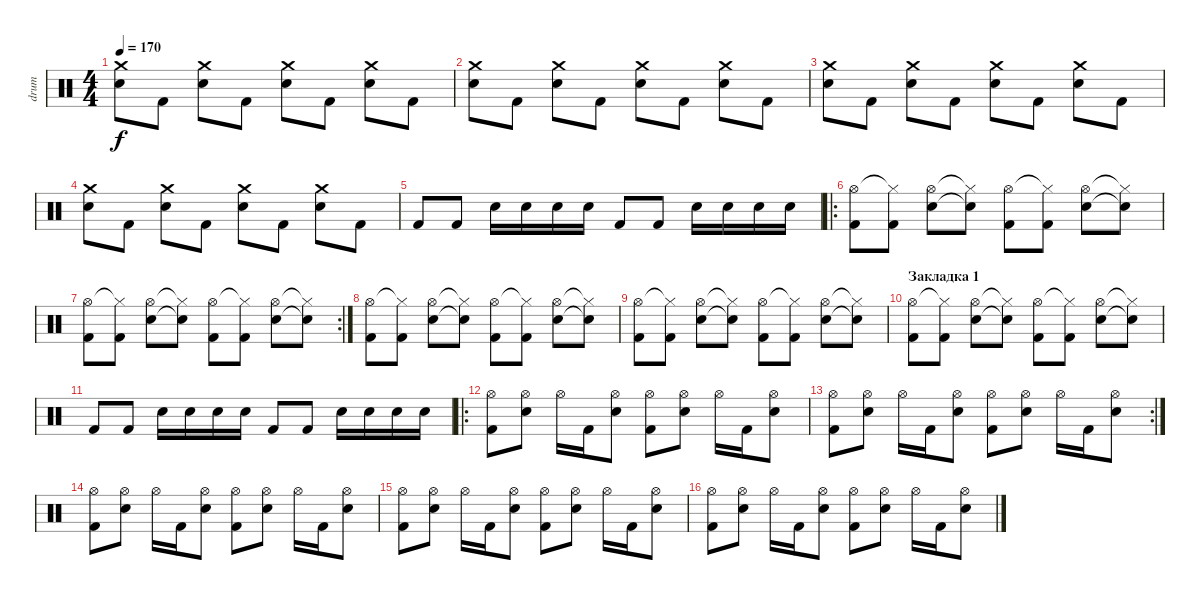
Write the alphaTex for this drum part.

\track ("drum" "drum") {instrument percussion}
\staff {score}
\articulation defaults
\ts (4 4)
\tempo 170
\clef neutral
\ks c
("Crash medium (hit)" "Snare (hit) 2").8{dy f} "Kick (hit) 2".8 ("Crash medium (hit)" "Snare (hit) 2").8 "Kick (hit) 2".8 ("Crash medium (hit)" "Snare (hit) 2").8 "Kick (hit) 2".8 ("Crash medium (hit)" "Snare (hit) 2").8 "Kick (hit) 2".8 |
("Crash medium (hit)" "Snare (hit) 2").8 "Kick (hit) 2".8 ("Crash medium (hit)" "Snare (hit) 2").8 "Kick (hit) 2".8 ("Crash medium (hit)" "Snare (hit) 2").8 "Kick (hit) 2".8 ("Crash medium (hit)" "Snare (hit) 2").8 "Kick (hit) 2".8 |
("Crash medium (hit)" "Snare (hit) 2").8 "Kick (hit) 2".8 ("Crash medium (hit)" "Snare (hit) 2").8 "Kick (hit) 2".8 ("Crash medium (hit)" "Snare (hit) 2").8 "Kick (hit) 2".8 ("Crash medium (hit)" "Snare (hit) 2").8 "Kick (hit) 2".8 |
("Crash medium (hit)" "Snare (hit) 2").8 "Kick (hit) 2".8 ("Crash medium (hit)" "Snare (hit) 2").8 "Kick (hit) 2".8 ("Crash medium (hit)" "Snare (hit) 2").8 "Kick (hit) 2".8 ("Crash medium (hit)" "Snare (hit) 2").8 "Kick (hit) 2".8 |
"Kick (hit) 2".8 "Kick (hit) 2".8 "Snare (hit) 2".16 "Snare (hit) 2".16 "Snare (hit) 2".16 "Snare (hit) 2".16 "Kick (hit) 2".8 "Kick (hit) 2".8 "Snare (hit) 2".16 "Snare (hit) 2".16 "Snare (hit) 2".16 "Snare (hit) 2".16 |
\ro
("Hi-Hat (open)" "Kick (hit) 2").8 ("Hi-Hat (closed)"{t} "Kick (hit) 2").8 ("Hi-Hat (open)" "Snare (hit) 2").8 ("Hi-Hat (closed)"{t} "Snare (hit)"{t}).8 ("Hi-Hat (open)" "Kick (hit) 2").8 ("Hi-Hat (closed)"{t} "Kick (hit) 2").8 ("Hi-Hat (open)" "Snare (hit) 2").8 ("Hi-Hat (closed)"{t} "Snare (hit) 2"{t}).8 |
\rc 2
("Hi-Hat (open)" "Kick (hit) 2").8 ("Hi-Hat (closed)"{t} "Kick (hit) 2").8 ("Hi-Hat (open)" "Snare (hit) 2").8 ("Hi-Hat (closed)"{t} "Snare (hit)"{t}).8 ("Hi-Hat (open)" "Kick (hit) 2").8 ("Hi-Hat (closed)"{t} "Kick (hit) 2").8 ("Hi-Hat (open)" "Snare (hit) 2").8 ("Hi-Hat (closed)"{t} "Snare (hit) 2"{t}).8 |
("Hi-Hat (open)" "Kick (hit) 2").8 ("Hi-Hat (closed)"{t} "Kick (hit) 2").8 ("Hi-Hat (open)" "Snare (hit) 2").8 ("Hi-Hat (closed)"{t} "Snare (hit)"{t}).8 ("Hi-Hat (open)" "Kick (hit) 2").8 ("Hi-Hat (closed)"{t} "Kick (hit) 2").8 ("Hi-Hat (open)" "Snare (hit) 2").8 ("Hi-Hat (closed)"{t} "Snare (hit) 2"{t}).8 |
("Hi-Hat (open)" "Kick (hit) 2").8 ("Hi-Hat (closed)"{t} "Kick (hit) 2").8 ("Hi-Hat (open)" "Snare (hit) 2").8 ("Hi-Hat (closed)"{t} "Snare (hit)"{t}).8 ("Hi-Hat (open)" "Kick (hit) 2").8 ("Hi-Hat (closed)"{t} "Kick (hit) 2").8 ("Hi-Hat (open)" "Snare (hit) 2").8 ("Hi-Hat (closed)"{t} "Snare (hit) 2"{t}).8 |
\section ("" "Закладка 1")
("Hi-Hat (open)" "Kick (hit) 2").8 ("Hi-Hat (closed)"{t} "Kick (hit) 2").8 ("Hi-Hat (open)" "Snare (hit) 2").8 ("Hi-Hat (closed)"{t} "Snare (hit)"{t}).8 ("Hi-Hat (open)" "Kick (hit) 2").8 ("Hi-Hat (closed)"{t} "Kick (hit) 2").8 ("Hi-Hat (open)" "Snare (hit) 2").8 ("Hi-Hat (closed)"{t} "Snare (hit) 2"{t}).8 |
"Kick (hit) 2".8 "Kick (hit) 2".8 "Snare (hit) 2".16 "Snare (hit) 2".16 "Snare (hit) 2".16 "Snare (hit) 2".16 "Kick (hit) 2".8 "Kick (hit) 2".8 "Snare (hit) 2".16 "Snare (hit) 2".16 "Snare (hit) 2".16 "Snare (hit) 2".16 |
\ro
("Hi-Hat (open)" "Kick (hit) 2").8 ("Hi-Hat (open)" "Snare (hit) 2").8 "Hi-Hat (open)".16 "Kick (hit) 2".16 ("Hi-Hat (open)" "Snare (hit) 2").8 ("Hi-Hat (open)" "Kick (hit) 2").8 ("Hi-Hat (open)" "Snare (hit) 2").8 "Hi-Hat (open)".16 "Kick (hit) 2".16 ("Hi-Hat (open)" "Snare (hit) 2").8 |
\rc 2
("Hi-Hat (open)" "Kick (hit) 2").8 ("Hi-Hat (open)" "Snare (hit) 2").8 "Hi-Hat (open)".16 "Kick (hit) 2".16 ("Hi-Hat (open)" "Snare (hit) 2").8 ("Hi-Hat (open)" "Kick (hit) 2").8 ("Hi-Hat (open)" "Snare (hit) 2").8 "Hi-Hat (open)".16 "Kick (hit) 2".16 ("Hi-Hat (open)" "Snare (hit) 2").8 |
("Hi-Hat (open)" "Kick (hit) 2").8 ("Hi-Hat (open)" "Snare (hit) 2").8 "Hi-Hat (open)".16 "Kick (hit) 2".16 ("Hi-Hat (open)" "Snare (hit) 2").8 ("Hi-Hat (open)" "Kick (hit) 2").8 ("Hi-Hat (open)" "Snare (hit) 2").8 "Hi-Hat (open)".16 "Kick (hit) 2".16 ("Hi-Hat (open)" "Snare (hit) 2").8 |
("Hi-Hat (open)" "Kick (hit) 2").8 ("Hi-Hat (open)" "Snare (hit) 2").8 "Hi-Hat (open)".16 "Kick (hit) 2".16 ("Hi-Hat (open)" "Snare (hit) 2").8 ("Hi-Hat (open)" "Kick (hit) 2").8 ("Hi-Hat (open)" "Snare (hit) 2").8 "Hi-Hat (open)".16 "Kick (hit) 2".16 ("Hi-Hat (open)" "Snare (hit) 2").8 |
("Hi-Hat (open)" "Kick (hit) 2").8 ("Hi-Hat (open)" "Snare (hit) 2").8 "Hi-Hat (open)".16 "Kick (hit) 2".16 ("Hi-Hat (open)" "Snare (hit) 2").8 ("Hi-Hat (open)" "Kick (hit) 2").8 ("Hi-Hat (open)" "Snare (hit) 2").8 "Hi-Hat (open)".16 "Kick (hit) 2".16 ("Hi-Hat (open)" "Snare (hit) 2").8
